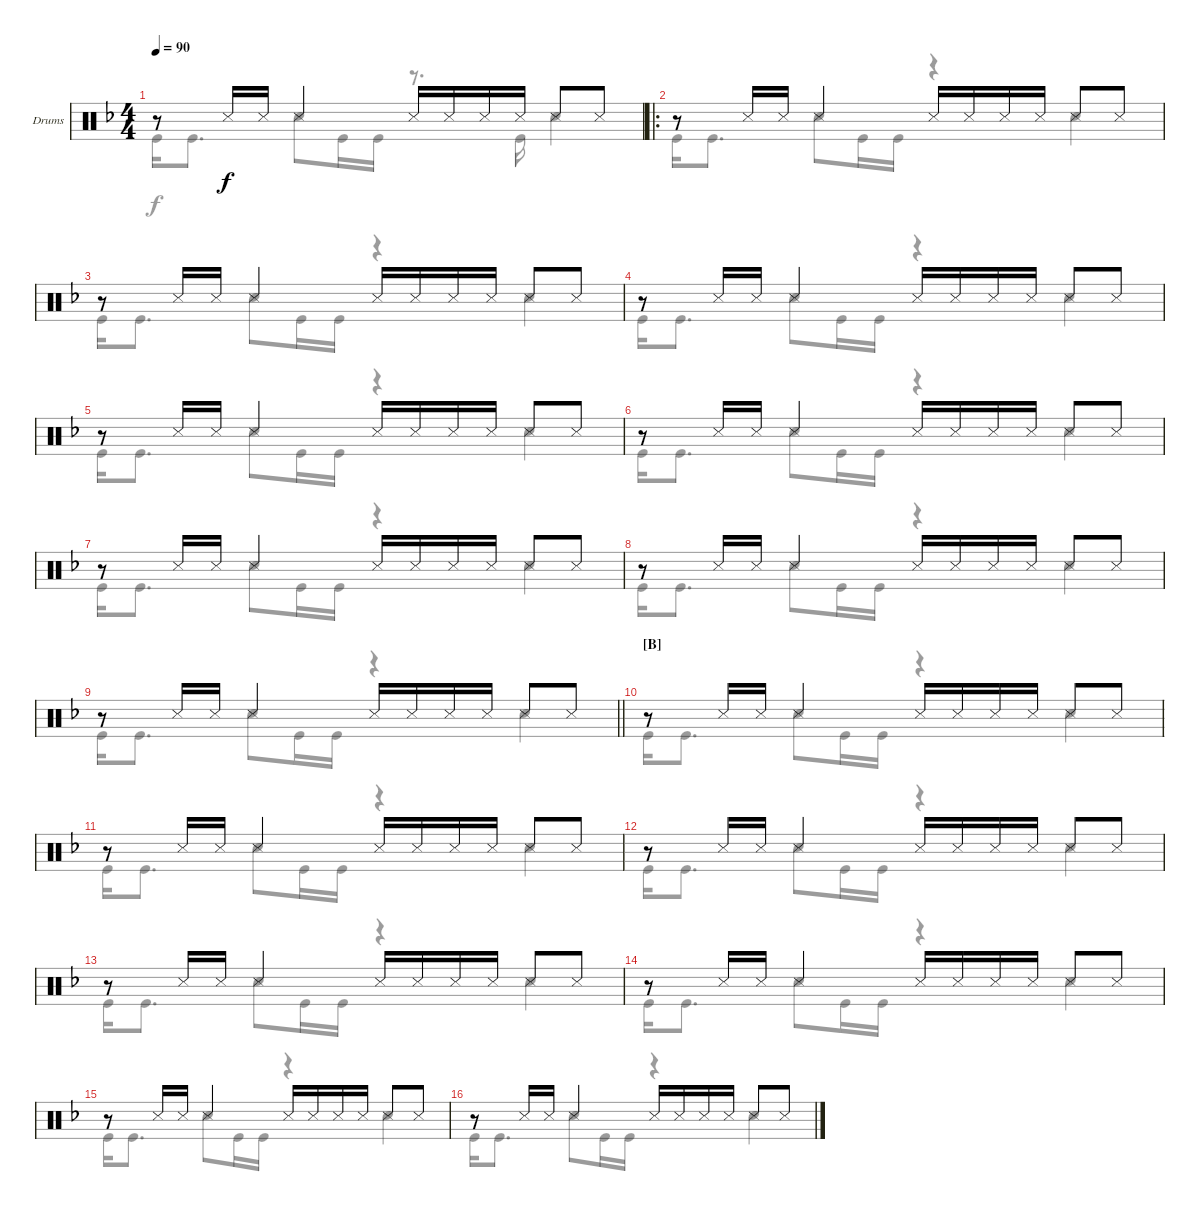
\bracketExtendMode groupsimilarinstruments
\firstSystemTrackNameOrientation horizontal
\otherSystemsTrackNameOrientation horizontal
\track ("Drumkit" "Drums") {instrument percussion}
\staff {score}
\articulation defaults
\voice
\ts (4 4)
\tempo 90
\clef neutral
\ks f
r.8{dy f} "Snare (side stick) 3".16 "Snare (side stick) 3".16 "Snare (side stick) 3".4 "Snare (side stick) 3".16 "Snare (side stick) 3".16 "Snare (side stick) 3".16 "Snare (side stick) 3".16 "Snare (side stick) 3".8 "Snare (side stick) 3".8 |
\ro
r.8 "Snare (side stick) 3".16 "Snare (side stick) 3".16 "Snare (side stick) 3".4 "Snare (side stick) 3".16 "Snare (side stick) 3".16 "Snare (side stick) 3".16 "Snare (side stick) 3".16 "Snare (side stick) 3".8 "Snare (side stick) 3".8 |
r.8 "Snare (side stick) 3".16 "Snare (side stick) 3".16 "Snare (side stick) 3".4 "Snare (side stick) 3".16 "Snare (side stick) 3".16 "Snare (side stick) 3".16 "Snare (side stick) 3".16 "Snare (side stick) 3".8 "Snare (side stick) 3".8 |
r.8 "Snare (side stick) 3".16 "Snare (side stick) 3".16 "Snare (side stick) 3".4 "Snare (side stick) 3".16 "Snare (side stick) 3".16 "Snare (side stick) 3".16 "Snare (side stick) 3".16 "Snare (side stick) 3".8 "Snare (side stick) 3".8 |
r.8 "Snare (side stick) 3".16 "Snare (side stick) 3".16 "Snare (side stick) 3".4 "Snare (side stick) 3".16 "Snare (side stick) 3".16 "Snare (side stick) 3".16 "Snare (side stick) 3".16 "Snare (side stick) 3".8 "Snare (side stick) 3".8 |
r.8 "Snare (side stick) 3".16 "Snare (side stick) 3".16 "Snare (side stick) 3".4 "Snare (side stick) 3".16 "Snare (side stick) 3".16 "Snare (side stick) 3".16 "Snare (side stick) 3".16 "Snare (side stick) 3".8 "Snare (side stick) 3".8 |
r.8 "Snare (side stick) 3".16 "Snare (side stick) 3".16 "Snare (side stick) 3".4 "Snare (side stick) 3".16 "Snare (side stick) 3".16 "Snare (side stick) 3".16 "Snare (side stick) 3".16 "Snare (side stick) 3".8 "Snare (side stick) 3".8 |
r.8 "Snare (side stick) 3".16 "Snare (side stick) 3".16 "Snare (side stick) 3".4 "Snare (side stick) 3".16 "Snare (side stick) 3".16 "Snare (side stick) 3".16 "Snare (side stick) 3".16 "Snare (side stick) 3".8 "Snare (side stick) 3".8 |
\barLineRight lightlight
r.8 "Snare (side stick) 3".16 "Snare (side stick) 3".16 "Snare (side stick) 3".4 "Snare (side stick) 3".16 "Snare (side stick) 3".16 "Snare (side stick) 3".16 "Snare (side stick) 3".16 "Snare (side stick) 3".8 "Snare (side stick) 3".8 |
\section ("B" "")
r.8 "Snare (side stick) 3".16 "Snare (side stick) 3".16 "Snare (side stick) 3".4 "Snare (side stick) 3".16 "Snare (side stick) 3".16 "Snare (side stick) 3".16 "Snare (side stick) 3".16 "Snare (side stick) 3".8 "Snare (side stick) 3".8 |
r.8 "Snare (side stick) 3".16 "Snare (side stick) 3".16 "Snare (side stick) 3".4 "Snare (side stick) 3".16 "Snare (side stick) 3".16 "Snare (side stick) 3".16 "Snare (side stick) 3".16 "Snare (side stick) 3".8 "Snare (side stick) 3".8 |
r.8 "Snare (side stick) 3".16 "Snare (side stick) 3".16 "Snare (side stick) 3".4 "Snare (side stick) 3".16 "Snare (side stick) 3".16 "Snare (side stick) 3".16 "Snare (side stick) 3".16 "Snare (side stick) 3".8 "Snare (side stick) 3".8 |
r.8 "Snare (side stick) 3".16 "Snare (side stick) 3".16 "Snare (side stick) 3".4 "Snare (side stick) 3".16 "Snare (side stick) 3".16 "Snare (side stick) 3".16 "Snare (side stick) 3".16 "Snare (side stick) 3".8 "Snare (side stick) 3".8 |
r.8 "Snare (side stick) 3".16 "Snare (side stick) 3".16 "Snare (side stick) 3".4 "Snare (side stick) 3".16 "Snare (side stick) 3".16 "Snare (side stick) 3".16 "Snare (side stick) 3".16 "Snare (side stick) 3".8 "Snare (side stick) 3".8 |
r.8 "Snare (side stick) 3".16 "Snare (side stick) 3".16 "Snare (side stick) 3".4 "Snare (side stick) 3".16 "Snare (side stick) 3".16 "Snare (side stick) 3".16 "Snare (side stick) 3".16 "Snare (side stick) 3".8 "Snare (side stick) 3".8 |
r.8 "Snare (side stick) 3".16 "Snare (side stick) 3".16 "Snare (side stick) 3".4 "Snare (side stick) 3".16 "Snare (side stick) 3".16 "Snare (side stick) 3".16 "Snare (side stick) 3".16 "Snare (side stick) 3".8 "Snare (side stick) 3".8
\voice
\clef neutral
\ottava regular
\simile none
\ks f "Kick (hit)".16{dy f} "Kick (hit)".8{d} "Snare (hit) 2".8 "Kick (hit)".16 "Kick (hit)".16
r.8{d} "Kick (hit)".16 "Snare (hit) 2".4 |
"Kick (hit)".16 "Kick (hit)".8{d} "Snare (hit) 2".8 "Kick (hit)".16 "Kick (hit)".16 r.4 "Snare (hit) 2".4 |
"Kick (hit)".16 "Kick (hit)".8{d} "Snare (hit) 2".8 "Kick (hit)".16 "Kick (hit)".16 r.4 "Snare (hit) 2".4 |
"Kick (hit)".16 "Kick (hit)".8{d} "Snare (hit) 2".8 "Kick (hit)".16 "Kick (hit)".16 r.4 "Snare (hit) 2".4 |
"Kick (hit)".16 "Kick (hit)".8{d} "Snare (hit) 2".8 "Kick (hit)".16 "Kick (hit)".16 r.4 "Snare (hit) 2".4 |
"Kick (hit)".16 "Kick (hit)".8{d} "Snare (hit) 2".8 "Kick (hit)".16 "Kick (hit)".16 r.4 "Snare (hit) 2".4 |
"Kick (hit)".16 "Kick (hit)".8{d} "Snare (hit) 2".8 "Kick (hit)".16 "Kick (hit)".16 r.4 "Snare (hit) 2".4 |
"Kick (hit)".16 "Kick (hit)".8{d} "Snare (hit) 2".8 "Kick (hit)".16 "Kick (hit)".16 r.4 "Snare (hit) 2".4 |
\barLineRight lightlight "Kick (hit)".16 "Kick (hit)".8{d} "Snare (hit) 2".8 "Kick (hit)".16 "Kick (hit)".16
r.4 "Snare (hit) 2".4 |
"Kick (hit)".16 "Kick (hit)".8{d} "Snare (hit) 2".8 "Kick (hit)".16 "Kick (hit)".16 r.4 "Snare (hit) 2".4 |
"Kick (hit)".16 "Kick (hit)".8{d} "Snare (hit) 2".8 "Kick (hit)".16 "Kick (hit)".16 r.4 "Snare (hit) 2".4 |
"Kick (hit)".16 "Kick (hit)".8{d} "Snare (hit) 2".8 "Kick (hit)".16 "Kick (hit)".16 r.4 "Snare (hit) 2".4 |
"Kick (hit)".16 "Kick (hit)".8{d} "Snare (hit) 2".8 "Kick (hit)".16 "Kick (hit)".16 r.4 "Snare (hit) 2".4 |
"Kick (hit)".16 "Kick (hit)".8{d} "Snare (hit) 2".8 "Kick (hit)".16 "Kick (hit)".16 r.4 "Snare (hit) 2".4 |
"Kick (hit)".16 "Kick (hit)".8{d} "Snare (hit) 2".8 "Kick (hit)".16 "Kick (hit)".16 r.4 "Snare (hit) 2".4 |
"Kick (hit)".16 "Kick (hit)".8{d} "Snare (hit) 2".8 "Kick (hit)".16 "Kick (hit)".16 r.4 "Snare (hit) 2".4
